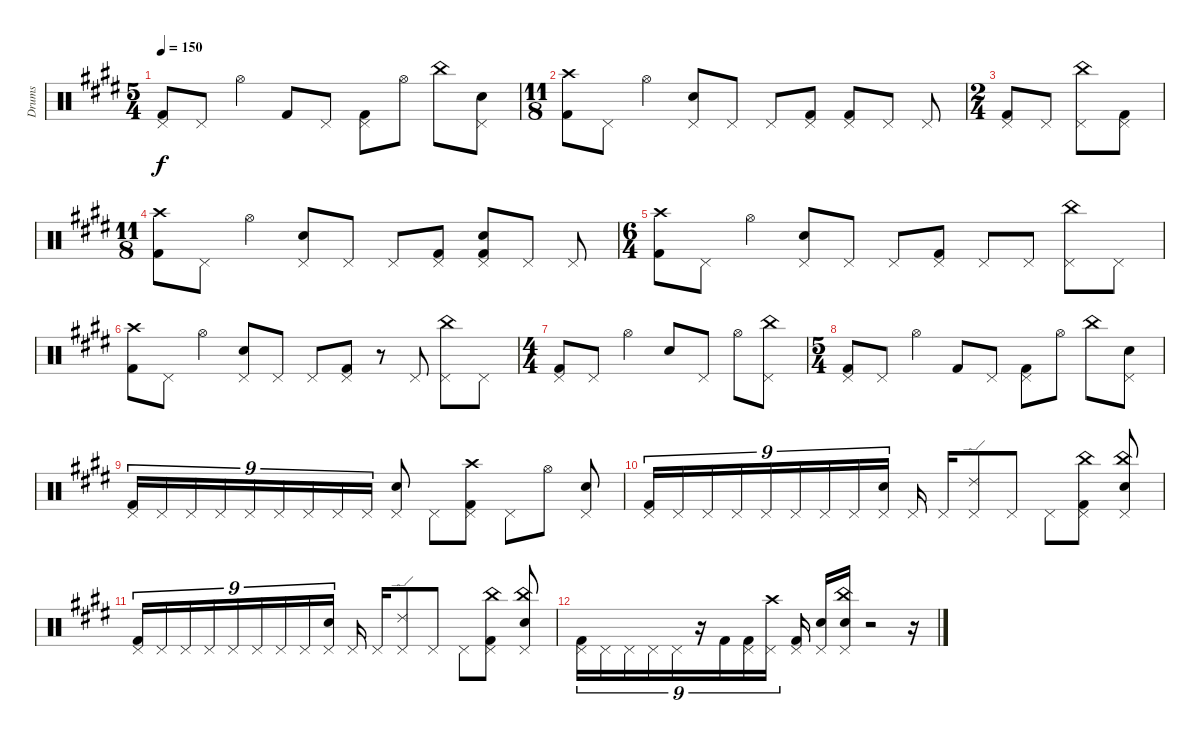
\track ("Drums" "Drums") {instrument percussion}
\staff {score}
\articulation defaults
\ts (5 4)
\tempo 150
\clef neutral
\ks e
("Pedal Hi-Hat (hit)" "Kick (hit) 2").8{dy f} "Pedal Hi-Hat (hit)".8 "Hi-Hat (open)".4 "Kick (hit) 2".8 "Pedal Hi-Hat (hit)".8 ("Pedal Hi-Hat (hit)" "Kick (hit) 2").8 "Hi-Hat (open)".8 "China (hit)".8 ("Pedal Hi-Hat (hit)" "Electric Snare (hit)").8 |
\ts (11 8)
\section ("" "")
("Crash high (hit)" "Kick (hit) 2").8 "Pedal Hi-Hat (hit)".8 "Hi-Hat (open)".4 ("Pedal Hi-Hat (hit)" "Electric Snare (hit)").8 "Pedal Hi-Hat (hit)".8 "Pedal Hi-Hat (hit)".8 ("Pedal Hi-Hat (hit)" "Kick (hit) 2").8 ("Pedal Hi-Hat (hit)" "Kick (hit) 2").8 "Pedal Hi-Hat (hit)".8 "Pedal Hi-Hat (hit)".8 |
\ts (2 4)
("Pedal Hi-Hat (hit)" "Kick (hit) 2").8 "Pedal Hi-Hat (hit)".8 ("Pedal Hi-Hat (hit)" "China (hit)").8 ("Pedal Hi-Hat (hit)" "Kick (hit) 2").8 |
\ts (11 8)
("Crash high (hit)" "Kick (hit) 2").8 "Pedal Hi-Hat (hit)".8 "Hi-Hat (open)".4 ("Pedal Hi-Hat (hit)" "Electric Snare (hit)").8 "Pedal Hi-Hat (hit)".8 "Pedal Hi-Hat (hit)".8 ("Pedal Hi-Hat (hit)" "Kick (hit) 2").8 ("Pedal Hi-Hat (hit)" "Kick (hit) 2" "Electric Snare (hit)").8 "Pedal Hi-Hat (hit)".8 "Pedal Hi-Hat (hit)".8 |
\ts (6 4)
("Crash high (hit)" "Kick (hit) 2").8 "Pedal Hi-Hat (hit)".8 "Hi-Hat (open)".4 ("Pedal Hi-Hat (hit)" "Electric Snare (hit)").8 "Pedal Hi-Hat (hit)".8 "Pedal Hi-Hat (hit)".8 ("Pedal Hi-Hat (hit)" "Kick (hit) 2").8 "Pedal Hi-Hat (hit)".8 "Pedal Hi-Hat (hit)".8 ("Pedal Hi-Hat (hit)" "China (hit)").8 "Pedal Hi-Hat (hit)".8 |
("Crash high (hit)" "Kick (hit) 2").8 "Pedal Hi-Hat (hit)".8 "Hi-Hat (open)".4 ("Pedal Hi-Hat (hit)" "Electric Snare (hit)").8 "Pedal Hi-Hat (hit)".8 "Pedal Hi-Hat (hit)".8 ("Pedal Hi-Hat (hit)" "Kick (hit) 2").8 r.8 "Pedal Hi-Hat (hit)".8 ("Pedal Hi-Hat (hit)" "China (hit)").8 "Pedal Hi-Hat (hit)".8 |
\ts (4 4)
("Pedal Hi-Hat (hit)" "Kick (hit) 2").8 "Pedal Hi-Hat (hit)".8 "Hi-Hat (open)".4 "Electric Snare (hit)".8 "Pedal Hi-Hat (hit)".8 "Hi-Hat (open)".8 ("Pedal Hi-Hat (hit)" "China (hit)").8 |
\ts (5 4)
("Pedal Hi-Hat (hit)" "Kick (hit) 2").8 "Pedal Hi-Hat (hit)".8 "Hi-Hat (open)".4 "Kick (hit) 2".8 "Pedal Hi-Hat (hit)".8 ("Pedal Hi-Hat (hit)" "Kick (hit) 2").8 "Hi-Hat (open)".8 "China (hit)".8 ("Pedal Hi-Hat (hit)" "Electric Snare (hit)").8 |
("Pedal Hi-Hat (hit)" "Kick (hit) 2").16{tu (9 8)} "Pedal Hi-Hat (hit)".16{tu (9 8)} "Pedal Hi-Hat (hit)".16{tu (9 8)} "Pedal Hi-Hat (hit)".16{tu (9 8)} "Pedal Hi-Hat (hit)".16{tu (9 8)} "Pedal Hi-Hat (hit)".16{tu (9 8)} "Pedal Hi-Hat (hit)".16{tu (9 8)} "Pedal Hi-Hat (hit)".16{tu (9 8)} "Pedal Hi-Hat (hit)".16{tu (9 8)} ("Pedal Hi-Hat (hit)" "Electric Snare (hit)").8 "Pedal Hi-Hat (hit)".8 ("Pedal Hi-Hat (hit)" "Crash high (hit)" "Kick (hit) 2").8 "Pedal Hi-Hat (hit)".8 "Hi-Hat (open)".8 ("Pedal Hi-Hat (hit)" "Electric Snare (hit)").8 |
("Pedal Hi-Hat (hit)" "Kick (hit) 2").16{tu (9 8)} "Pedal Hi-Hat (hit)".16{tu (9 8)} "Pedal Hi-Hat (hit)".16{tu (9 8)} "Pedal Hi-Hat (hit)".16{tu (9 8)} "Pedal Hi-Hat (hit)".16{tu (9 8)} "Pedal Hi-Hat (hit)".16{tu (9 8)} "Pedal Hi-Hat (hit)".16{tu (9 8)} "Pedal Hi-Hat (hit)".16{tu (9 8)} ("Pedal Hi-Hat (hit)" "Electric Snare (hit)").16{tu (9 8)} "Pedal Hi-Hat (hit)".16 "Pedal Hi-Hat (hit)".16 ("Pedal Hi-Hat (hit)" "Ride (edge) 2").8 "Pedal Hi-Hat (hit)".8 "Pedal Hi-Hat (hit)".8 ("Pedal Hi-Hat (hit)" "China (hit)" "Kick (hit) 2").8 ("Pedal Hi-Hat (hit)" "China (hit)" "Electric Snare (hit)").8 |
("Pedal Hi-Hat (hit)" "Kick (hit) 2").16{tu (9 8)} "Pedal Hi-Hat (hit)".16{tu (9 8)} "Pedal Hi-Hat (hit)".16{tu (9 8)} "Pedal Hi-Hat (hit)".16{tu (9 8)} "Pedal Hi-Hat (hit)".16{tu (9 8)} "Pedal Hi-Hat (hit)".16{tu (9 8)} "Pedal Hi-Hat (hit)".16{tu (9 8)} "Pedal Hi-Hat (hit)".16{tu (9 8)} ("Pedal Hi-Hat (hit)" "Electric Snare (hit)").16{tu (9 8)} "Pedal Hi-Hat (hit)".16 "Pedal Hi-Hat (hit)".16 ("Pedal Hi-Hat (hit)" "Ride (edge) 2").8 "Pedal Hi-Hat (hit)".8 "Pedal Hi-Hat (hit)".8 ("Pedal Hi-Hat (hit)" "China (hit)" "Kick (hit) 2").8 ("Pedal Hi-Hat (hit)" "China (hit)" "Electric Snare (hit)").8 |
("Pedal Hi-Hat (hit)" "Kick (hit) 2").16{tu (9 8)} "Pedal Hi-Hat (hit)".16{tu (9 8)} "Pedal Hi-Hat (hit)".16{tu (9 8)} "Pedal Hi-Hat (hit)".16{tu (9 8)} "Pedal Hi-Hat (hit)".16{tu (9 8)} r.16{tu (9 8)} "Kick (hit) 2".16{tu (9 8)} ("Pedal Hi-Hat (hit)" "Kick (hit) 2").16{tu (9 8)} ("Pedal Hi-Hat (hit)" "Crash high (hit)").16{tu (9 8)} ("Pedal Hi-Hat (hit)" "Kick (hit) 2").16 ("Pedal Hi-Hat (hit)" "Electric Snare (hit)").16 ("Pedal Hi-Hat (hit)" "China (hit)" "Electric Snare (hit)").16 r.2 r.16
